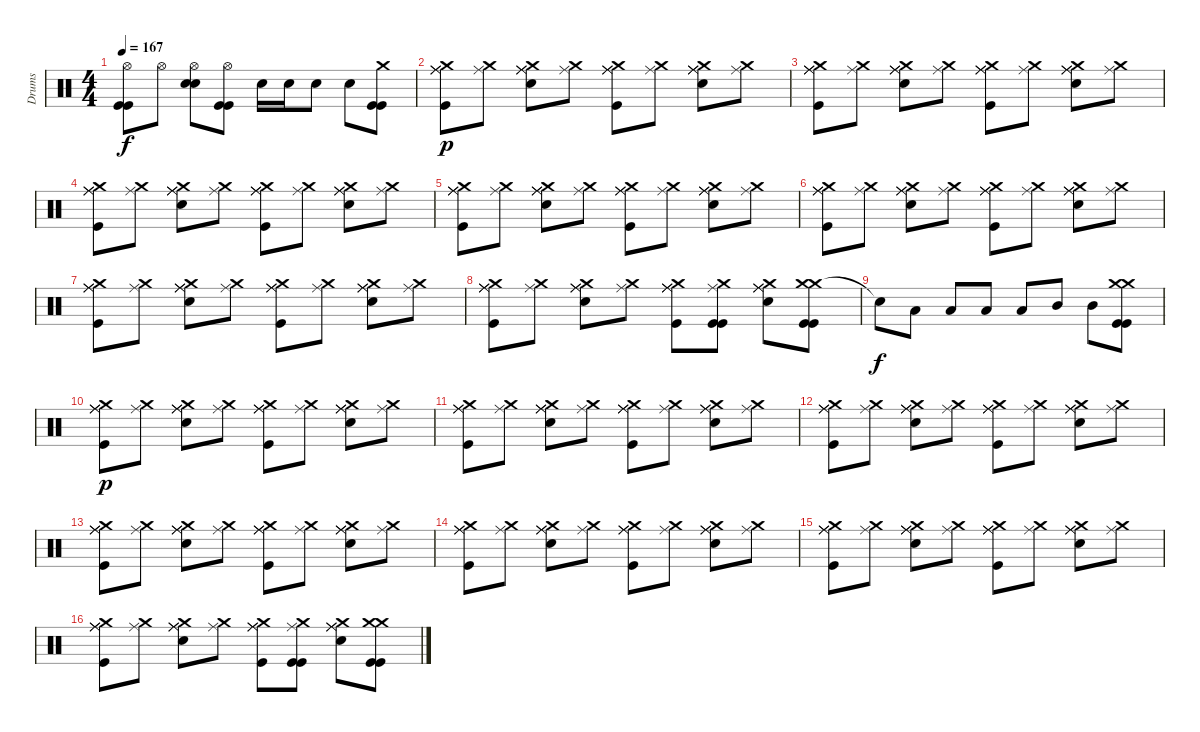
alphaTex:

\track ("Drums" "Drums") {instrument percussion}
\staff {score}
\articulation defaults
\ts (4 4)
\tempo 167
\clef neutral
\ks c
("Hi-Hat (open)" "Kick (hit)" "Kick (hit)").8{dy f} "Hi-Hat (open)".8 ("Hi-Hat (open)" "Snare (hit) 2" "Snare (hit) 2").8 ("Hi-Hat (open)" "Kick (hit)" "Kick (hit)").8 "Snare (hit) 2".16 "Snare (hit) 2".16 "Snare (hit) 2".8 "Snare (hit) 2".8 ("Crash medium (hit)" "Kick (hit)" "Kick (hit)").8 |
("Ride (middle)" "Crash medium (hit)" "Ride (middle)" "Ride (middle)" "Kick (hit)").8{dy p} ("Ride (middle)" "Crash medium (hit)").8 ("Ride (middle)" "Crash medium (hit)" "Snare (hit) 2" "Ride (middle)" "Ride (middle)").8 ("Ride (middle)" "Crash medium (hit)").8 ("Ride (middle)" "Crash medium (hit)" "Ride (middle)" "Ride (middle)" "Kick (hit)").8 ("Ride (middle)" "Crash medium (hit)").8 ("Ride (middle)" "Crash medium (hit)" "Snare (hit) 2" "Ride (middle)" "Ride (middle)").8 ("Ride (middle)" "Crash medium (hit)").8 |
("Ride (middle)" "Crash medium (hit)" "Ride (middle)" "Ride (middle)" "Kick (hit)").8 ("Ride (middle)" "Crash medium (hit)").8 ("Ride (middle)" "Crash medium (hit)" "Snare (hit) 2" "Ride (middle)" "Ride (middle)").8 ("Ride (middle)" "Crash medium (hit)").8 ("Ride (middle)" "Crash medium (hit)" "Ride (middle)" "Ride (middle)" "Kick (hit)").8 ("Ride (middle)" "Crash medium (hit)").8 ("Ride (middle)" "Crash medium (hit)" "Snare (hit) 2" "Ride (middle)" "Ride (middle)").8 ("Ride (middle)" "Crash medium (hit)").8 |
("Ride (middle)" "Crash medium (hit)" "Ride (middle)" "Ride (middle)" "Kick (hit)").8 ("Ride (middle)" "Crash medium (hit)").8 ("Ride (middle)" "Crash medium (hit)" "Snare (hit) 2" "Ride (middle)" "Ride (middle)").8 ("Ride (middle)" "Crash medium (hit)").8 ("Ride (middle)" "Crash medium (hit)" "Ride (middle)" "Ride (middle)" "Kick (hit)").8 ("Ride (middle)" "Crash medium (hit)").8 ("Ride (middle)" "Crash medium (hit)" "Snare (hit) 2" "Ride (middle)" "Ride (middle)").8 ("Ride (middle)" "Crash medium (hit)").8 |
("Ride (middle)" "Crash medium (hit)" "Ride (middle)" "Ride (middle)" "Kick (hit)").8 ("Ride (middle)" "Crash medium (hit)").8 ("Ride (middle)" "Crash medium (hit)" "Snare (hit) 2" "Ride (middle)" "Ride (middle)").8 ("Ride (middle)" "Crash medium (hit)").8 ("Ride (middle)" "Crash medium (hit)" "Ride (middle)" "Ride (middle)" "Kick (hit)").8 ("Ride (middle)" "Crash medium (hit)").8 ("Ride (middle)" "Crash medium (hit)" "Snare (hit) 2" "Ride (middle)" "Ride (middle)").8 ("Ride (middle)" "Crash medium (hit)").8 |
("Ride (middle)" "Crash medium (hit)" "Ride (middle)" "Ride (middle)" "Kick (hit)").8 ("Ride (middle)" "Crash medium (hit)").8 ("Ride (middle)" "Crash medium (hit)" "Snare (hit) 2" "Ride (middle)" "Ride (middle)").8 ("Ride (middle)" "Crash medium (hit)").8 ("Ride (middle)" "Crash medium (hit)" "Ride (middle)" "Ride (middle)" "Kick (hit)").8 ("Ride (middle)" "Crash medium (hit)").8 ("Ride (middle)" "Crash medium (hit)" "Snare (hit) 2" "Ride (middle)" "Ride (middle)").8 ("Ride (middle)" "Crash medium (hit)").8 |
("Ride (middle)" "Crash medium (hit)" "Ride (middle)" "Ride (middle)" "Kick (hit)").8 ("Ride (middle)" "Crash medium (hit)").8 ("Ride (middle)" "Crash medium (hit)" "Snare (hit) 2" "Ride (middle)" "Ride (middle)").8 ("Ride (middle)" "Crash medium (hit)").8 ("Ride (middle)" "Crash medium (hit)" "Ride (middle)" "Ride (middle)" "Kick (hit)").8 ("Ride (middle)" "Crash medium (hit)").8 ("Ride (middle)" "Crash medium (hit)" "Snare (hit) 2" "Ride (middle)" "Ride (middle)").8 ("Ride (middle)" "Crash medium (hit)").8 |
("Ride (middle)" "Crash medium (hit)" "Ride (middle)" "Ride (middle)" "Kick (hit)").8 ("Ride (middle)" "Crash medium (hit)").8 ("Ride (middle)" "Crash medium (hit)" "Snare (hit) 2" "Ride (middle)" "Ride (middle)").8 ("Ride (middle)" "Crash medium (hit)").8 ("Ride (middle)" "Crash medium (hit)" "Ride (middle)" "Ride (middle)" "Kick (hit)").8 ("Ride (middle)" "Crash medium (hit)" "Kick (hit)" "Kick (hit)").8 ("Ride (middle)" "Crash medium (hit)" "Snare (hit) 2" "Ride (middle)" "Ride (middle)").8 ("Crash medium (hit)" "Crash medium (hit)" "Kick (hit)" "Kick (hit)").8 |
"Snare (hit)"{t}.8{dy f} "Low Tom (hit)".8 "Low Tom (hit)".8 "Low Tom (hit)".8 "Low Tom (hit)".8 "Mid Tom (hit)".8 "Mid Tom (hit)".8 ("Crash medium (hit)" "Crash medium (hit)" "Kick (hit)" "Kick (hit)").8 |
("Ride (middle)" "Crash medium (hit)" "Ride (middle)" "Ride (middle)" "Kick (hit)").8{dy p} ("Ride (middle)" "Crash medium (hit)").8 ("Ride (middle)" "Crash medium (hit)" "Snare (hit) 2" "Ride (middle)" "Ride (middle)").8 ("Ride (middle)" "Crash medium (hit)").8 ("Ride (middle)" "Crash medium (hit)" "Ride (middle)" "Ride (middle)" "Kick (hit)").8 ("Ride (middle)" "Crash medium (hit)").8 ("Ride (middle)" "Crash medium (hit)" "Snare (hit) 2" "Ride (middle)" "Ride (middle)").8 ("Ride (middle)" "Crash medium (hit)").8 |
("Ride (middle)" "Crash medium (hit)" "Ride (middle)" "Ride (middle)" "Kick (hit)").8 ("Ride (middle)" "Crash medium (hit)").8 ("Ride (middle)" "Crash medium (hit)" "Snare (hit) 2" "Ride (middle)" "Ride (middle)").8 ("Ride (middle)" "Crash medium (hit)").8 ("Ride (middle)" "Crash medium (hit)" "Ride (middle)" "Ride (middle)" "Kick (hit)").8 ("Ride (middle)" "Crash medium (hit)").8 ("Ride (middle)" "Crash medium (hit)" "Snare (hit) 2" "Ride (middle)" "Ride (middle)").8 ("Ride (middle)" "Crash medium (hit)").8 |
("Ride (middle)" "Crash medium (hit)" "Ride (middle)" "Ride (middle)" "Kick (hit)").8 ("Ride (middle)" "Crash medium (hit)").8 ("Ride (middle)" "Crash medium (hit)" "Snare (hit) 2" "Ride (middle)" "Ride (middle)").8 ("Ride (middle)" "Crash medium (hit)").8 ("Ride (middle)" "Crash medium (hit)" "Ride (middle)" "Ride (middle)" "Kick (hit)").8 ("Ride (middle)" "Crash medium (hit)").8 ("Ride (middle)" "Crash medium (hit)" "Snare (hit) 2" "Ride (middle)" "Ride (middle)").8 ("Ride (middle)" "Crash medium (hit)").8 |
("Ride (middle)" "Crash medium (hit)" "Ride (middle)" "Ride (middle)" "Kick (hit)").8 ("Ride (middle)" "Crash medium (hit)").8 ("Ride (middle)" "Crash medium (hit)" "Snare (hit) 2" "Ride (middle)" "Ride (middle)").8 ("Ride (middle)" "Crash medium (hit)").8 ("Ride (middle)" "Crash medium (hit)" "Ride (middle)" "Ride (middle)" "Kick (hit)").8 ("Ride (middle)" "Crash medium (hit)").8 ("Ride (middle)" "Crash medium (hit)" "Snare (hit) 2" "Ride (middle)" "Ride (middle)").8 ("Ride (middle)" "Crash medium (hit)").8 |
("Ride (middle)" "Crash medium (hit)" "Ride (middle)" "Ride (middle)" "Kick (hit)").8 ("Ride (middle)" "Crash medium (hit)").8 ("Ride (middle)" "Crash medium (hit)" "Snare (hit) 2" "Ride (middle)" "Ride (middle)").8 ("Ride (middle)" "Crash medium (hit)").8 ("Ride (middle)" "Crash medium (hit)" "Ride (middle)" "Ride (middle)" "Kick (hit)").8 ("Ride (middle)" "Crash medium (hit)").8 ("Ride (middle)" "Crash medium (hit)" "Snare (hit) 2" "Ride (middle)" "Ride (middle)").8 ("Ride (middle)" "Crash medium (hit)").8 |
("Ride (middle)" "Crash medium (hit)" "Ride (middle)" "Ride (middle)" "Kick (hit)").8 ("Ride (middle)" "Crash medium (hit)").8 ("Ride (middle)" "Crash medium (hit)" "Snare (hit) 2" "Ride (middle)" "Ride (middle)").8 ("Ride (middle)" "Crash medium (hit)").8 ("Ride (middle)" "Crash medium (hit)" "Ride (middle)" "Ride (middle)" "Kick (hit)").8 ("Ride (middle)" "Crash medium (hit)").8 ("Ride (middle)" "Crash medium (hit)" "Snare (hit) 2" "Ride (middle)" "Ride (middle)").8 ("Ride (middle)" "Crash medium (hit)").8 |
("Ride (middle)" "Crash medium (hit)" "Ride (middle)" "Ride (middle)" "Kick (hit)").8 ("Ride (middle)" "Crash medium (hit)").8 ("Ride (middle)" "Crash medium (hit)" "Snare (hit) 2" "Ride (middle)" "Ride (middle)").8 ("Ride (middle)" "Crash medium (hit)").8 ("Ride (middle)" "Crash medium (hit)" "Ride (middle)" "Ride (middle)" "Kick (hit)").8 ("Ride (middle)" "Crash medium (hit)" "Kick (hit)" "Kick (hit)").8 ("Ride (middle)" "Crash medium (hit)" "Snare (hit) 2" "Ride (middle)" "Ride (middle)").8 ("Crash medium (hit)" "Crash medium (hit)" "Kick (hit)" "Kick (hit)").8
